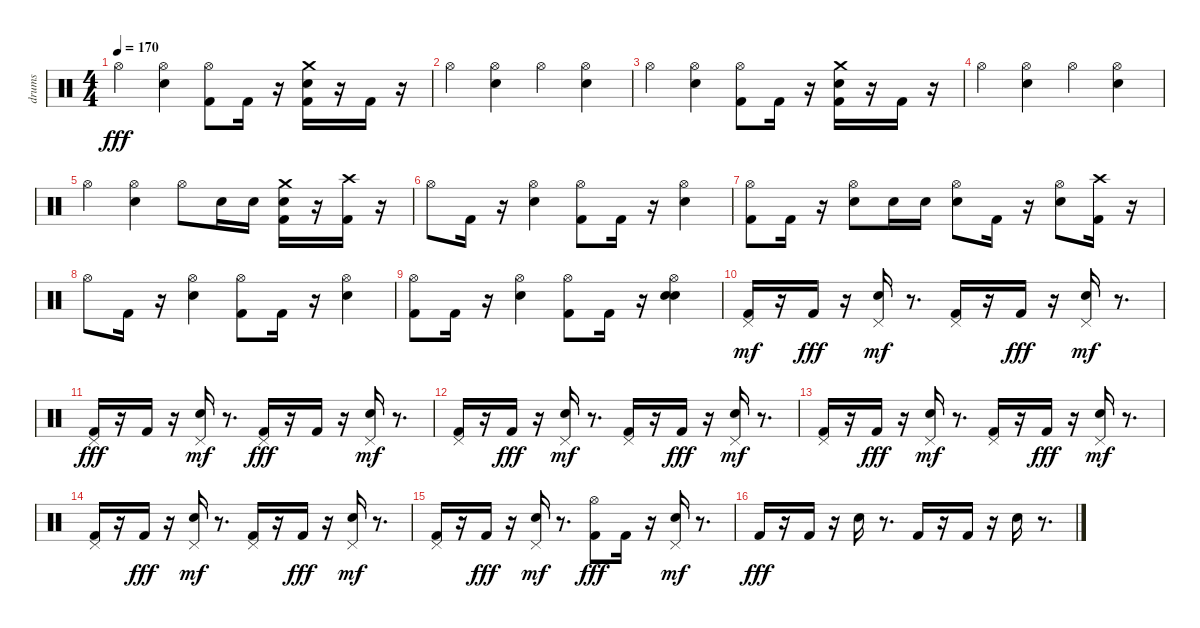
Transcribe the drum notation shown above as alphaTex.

\track ("drums" "drums") {instrument percussion}
\staff {score}
\articulation defaults
\ts (4 4)
\tempo 170
\clef neutral
\ks c "Hi-Hat (open)".4{dy fff}
("Electric Snare (hit)" "Hi-Hat (open)").4 ("Kick (hit) 2" "Hi-Hat (open)").8 "Kick (hit) 2".16 r.16 ("Kick (hit) 2" "Electric Snare (hit)" "Crash medium (hit)").16 r.16 "Kick (hit) 2".16 r.16 |
"Hi-Hat (open)".4 ("Electric Snare (hit)" "Hi-Hat (open)").4 "Hi-Hat (open)".4 ("Electric Snare (hit)" "Hi-Hat (open)").4 |
"Hi-Hat (open)".4 ("Electric Snare (hit)" "Hi-Hat (open)").4 ("Kick (hit) 2" "Hi-Hat (open)").8 "Kick (hit) 2".16 r.16 ("Kick (hit) 2" "Electric Snare (hit)" "Crash medium (hit)").16 r.16 "Kick (hit) 2".16 r.16 |
"Hi-Hat (open)".4 ("Electric Snare (hit)" "Hi-Hat (open)").4 "Hi-Hat (open)".4 ("Electric Snare (hit)" "Hi-Hat (open)").4 |
"Hi-Hat (open)".4 ("Electric Snare (hit)" "Hi-Hat (open)").4 "Hi-Hat (open)".8 "Electric Snare (hit)".16 "Electric Snare (hit)".16 ("Kick (hit) 2" "Electric Snare (hit)" "Crash medium (hit)").16 r.16 ("Kick (hit) 2" "Crash high (hit)").16 r.16 |
"Hi-Hat (open)".8 "Kick (hit) 2".16 r.16 ("Electric Snare (hit)" "Hi-Hat (open)").4 ("Kick (hit) 2" "Hi-Hat (open)").8 "Kick (hit) 2".16 r.16 ("Electric Snare (hit)" "Hi-Hat (open)").4 |
("Kick (hit) 2" "Hi-Hat (open)").8 "Kick (hit) 2".16 r.16 ("Electric Snare (hit)" "Hi-Hat (open)").8 "Electric Snare (hit)".16 "Electric Snare (hit)".16 ("Hi-Hat (open)" "Electric Snare (hit)").8 "Kick (hit) 2".16 r.16 ("Hi-Hat (open)" "Electric Snare (hit)").8 ("Kick (hit) 2" "Crash high (hit)").16 r.16 |
"Hi-Hat (open)".8 "Kick (hit) 2".16 r.16 ("Electric Snare (hit)" "Hi-Hat (open)").4 ("Kick (hit) 2" "Hi-Hat (open)").8 "Kick (hit) 2".16 r.16 ("Electric Snare (hit)" "Hi-Hat (open)").4 |
("Kick (hit) 2" "Hi-Hat (open)").8 "Kick (hit) 2".16 r.16 ("Electric Snare (hit)" "Hi-Hat (open)").4 ("Kick (hit) 2" "Hi-Hat (open)").8 "Kick (hit) 2".16 r.16 ("Electric Snare (hit)" "Hi-Hat (open)" "Electric Snare (hit)").4 |
("Kick (hit) 2" "Pedal Hi-Hat (hit)").16{dy mf} r.16 "Kick (hit) 2".16{dy fff} r.16 ("Electric Snare (hit)" "Pedal Hi-Hat (hit)").16{dy mf} r.8{d} ("Kick (hit) 2" "Pedal Hi-Hat (hit)").16 r.16 "Kick (hit) 2".16{dy fff} r.16 ("Electric Snare (hit)" "Pedal Hi-Hat (hit)").16{dy mf} r.8{d} |
("Pedal Hi-Hat (hit)" "Kick (hit) 2").16{dy fff} r.16 "Kick (hit) 2".16 r.16 ("Electric Snare (hit)" "Pedal Hi-Hat (hit)").16{dy mf} r.8{d} ("Pedal Hi-Hat (hit)" "Kick (hit) 2").16{dy fff} r.16 "Kick (hit) 2".16 r.16 ("Electric Snare (hit)" "Pedal Hi-Hat (hit)").16{dy mf} r.8{d} |
("Kick (hit) 2" "Pedal Hi-Hat (hit)").16 r.16 "Kick (hit) 2".16{dy fff} r.16 ("Electric Snare (hit)" "Pedal Hi-Hat (hit)").16{dy mf} r.8{d} ("Kick (hit) 2" "Pedal Hi-Hat (hit)").16 r.16 "Kick (hit) 2".16{dy fff} r.16 ("Electric Snare (hit)" "Pedal Hi-Hat (hit)").16{dy mf} r.8{d} |
("Kick (hit) 2" "Pedal Hi-Hat (hit)").16 r.16 "Kick (hit) 2".16{dy fff} r.16 ("Electric Snare (hit)" "Pedal Hi-Hat (hit)").16{dy mf} r.8{d} ("Kick (hit) 2" "Pedal Hi-Hat (hit)").16 r.16 "Kick (hit) 2".16{dy fff} r.16 ("Electric Snare (hit)" "Pedal Hi-Hat (hit)").16{dy mf} r.8{d} |
("Kick (hit) 2" "Pedal Hi-Hat (hit)").16 r.16 "Kick (hit) 2".16{dy fff} r.16 ("Electric Snare (hit)" "Pedal Hi-Hat (hit)").16{dy mf} r.8{d} ("Kick (hit) 2" "Pedal Hi-Hat (hit)").16 r.16 "Kick (hit) 2".16{dy fff} r.16 ("Electric Snare (hit)" "Pedal Hi-Hat (hit)").16{dy mf} r.8{d} |
("Kick (hit) 2" "Pedal Hi-Hat (hit)").16 r.16 "Kick (hit) 2".16{dy fff} r.16 ("Electric Snare (hit)" "Pedal Hi-Hat (hit)").16{dy mf} r.8{d} ("Hi-Hat (open)" "Kick (hit) 2").8{dy fff} "Kick (hit) 2".16 r.16 ("Electric Snare (hit)" "Pedal Hi-Hat (hit)").16{dy mf} r.8{d} |
"Kick (hit) 2".16{dy fff} r.16 "Kick (hit) 2".16 r.16 "Electric Snare (hit)".16 r.8{d} "Kick (hit) 2".16 r.16 "Kick (hit) 2".16 r.16 "Electric Snare (hit)".16 r.8{d}
